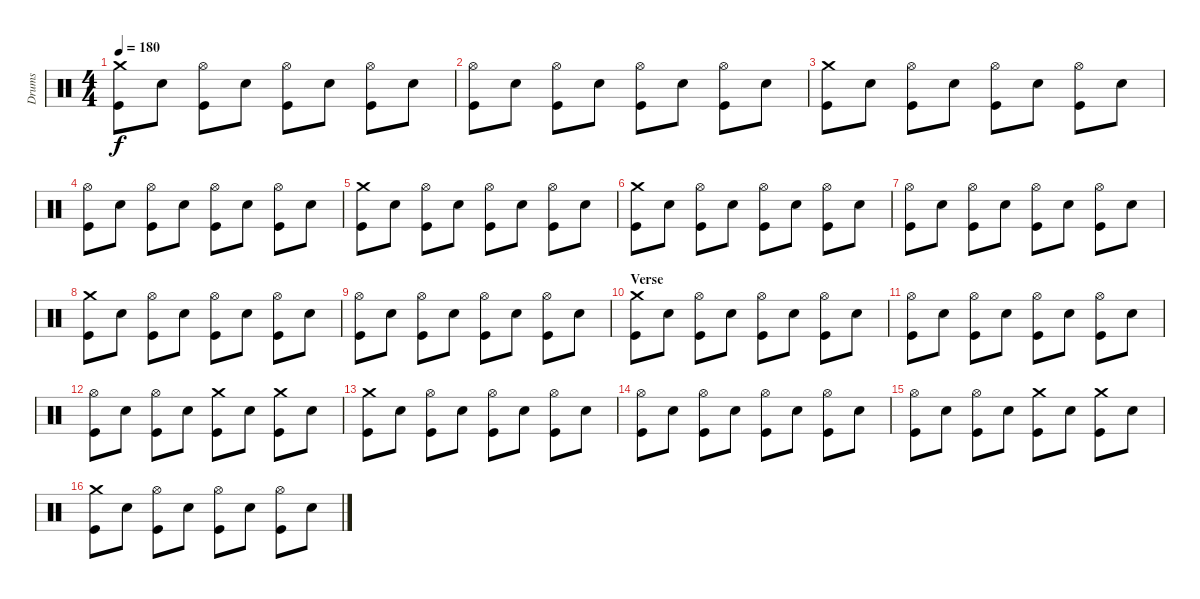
\track ("Drums" "Drums") {instrument percussion}
\staff {score}
\articulation defaults
\ts (4 4)
\tempo 180
\clef neutral
\ks c
("Crash medium (hit)" "Kick (hit)").8{dy f} "Snare (hit) 2".8 ("Hi-Hat (open)" "Kick (hit)").8 "Snare (hit) 2".8 ("Hi-Hat (open)" "Kick (hit)").8 "Snare (hit) 2".8 ("Hi-Hat (open)" "Kick (hit)").8 "Snare (hit) 2".8 |
("Hi-Hat (open)" "Kick (hit)").8 "Snare (hit) 2".8 ("Hi-Hat (open)" "Kick (hit)").8 "Snare (hit) 2".8 ("Hi-Hat (open)" "Kick (hit)").8 "Snare (hit) 2".8 ("Hi-Hat (open)" "Kick (hit)").8 "Snare (hit) 2".8 |
("Crash medium (hit)" "Kick (hit)").8 "Snare (hit) 2".8 ("Hi-Hat (open)" "Kick (hit)").8 "Snare (hit) 2".8 ("Hi-Hat (open)" "Kick (hit)").8 "Snare (hit) 2".8 ("Hi-Hat (open)" "Kick (hit)").8 "Snare (hit) 2".8 |
("Hi-Hat (open)" "Kick (hit)").8 "Snare (hit) 2".8 ("Hi-Hat (open)" "Kick (hit)").8 "Snare (hit) 2".8 ("Hi-Hat (open)" "Kick (hit)").8 "Snare (hit) 2".8 ("Hi-Hat (open)" "Kick (hit)").8 "Snare (hit) 2".8 |
("Crash medium (hit)" "Kick (hit)").8 "Snare (hit) 2".8 ("Hi-Hat (open)" "Kick (hit)").8 "Snare (hit) 2".8 ("Hi-Hat (open)" "Kick (hit)").8 "Snare (hit) 2".8 ("Hi-Hat (open)" "Kick (hit)").8 "Snare (hit) 2".8 |
("Crash medium (hit)" "Kick (hit)").8 "Snare (hit) 2".8 ("Hi-Hat (open)" "Kick (hit)").8 "Snare (hit) 2".8 ("Hi-Hat (open)" "Kick (hit)").8 "Snare (hit) 2".8 ("Hi-Hat (open)" "Kick (hit)").8 "Snare (hit) 2".8 |
("Hi-Hat (open)" "Kick (hit)").8 "Snare (hit) 2".8 ("Hi-Hat (open)" "Kick (hit)").8 "Snare (hit) 2".8 ("Hi-Hat (open)" "Kick (hit)").8 "Snare (hit) 2".8 ("Hi-Hat (open)" "Kick (hit)").8 "Snare (hit) 2".8 |
("Crash medium (hit)" "Kick (hit)").8 "Snare (hit) 2".8 ("Hi-Hat (open)" "Kick (hit)").8 "Snare (hit) 2".8 ("Hi-Hat (open)" "Kick (hit)").8 "Snare (hit) 2".8 ("Hi-Hat (open)" "Kick (hit)").8 "Snare (hit) 2".8 |
("Hi-Hat (open)" "Kick (hit)").8 "Snare (hit) 2".8 ("Hi-Hat (open)" "Kick (hit)").8 "Snare (hit) 2".8 ("Hi-Hat (open)" "Kick (hit)").8 "Snare (hit) 2".8 ("Hi-Hat (open)" "Kick (hit)").8 "Snare (hit) 2".8 |
\section ("" "Verse")
("Crash medium (hit)" "Kick (hit)").8 "Snare (hit) 2".8 ("Hi-Hat (open)" "Kick (hit)").8 "Snare (hit) 2".8 ("Hi-Hat (open)" "Kick (hit)").8 "Snare (hit) 2".8 ("Hi-Hat (open)" "Kick (hit)").8 "Snare (hit) 2".8 |
("Hi-Hat (open)" "Kick (hit)").8 "Snare (hit) 2".8 ("Hi-Hat (open)" "Kick (hit)").8 "Snare (hit) 2".8 ("Hi-Hat (open)" "Kick (hit)").8 "Snare (hit) 2".8 ("Hi-Hat (open)" "Kick (hit)").8 "Snare (hit) 2".8 |
("Hi-Hat (open)" "Kick (hit)").8 "Snare (hit) 2".8 ("Hi-Hat (open)" "Kick (hit)").8 "Snare (hit) 2".8 ("Crash medium (hit)" "Kick (hit)").8 "Snare (hit) 2".8 ("Crash medium (hit)" "Kick (hit)").8 "Snare (hit) 2".8 |
("Crash medium (hit)" "Kick (hit)").8 "Snare (hit) 2".8 ("Hi-Hat (open)" "Kick (hit)").8 "Snare (hit) 2".8 ("Hi-Hat (open)" "Kick (hit)").8 "Snare (hit) 2".8 ("Hi-Hat (open)" "Kick (hit)").8 "Snare (hit) 2".8 |
("Hi-Hat (open)" "Kick (hit)").8 "Snare (hit) 2".8 ("Hi-Hat (open)" "Kick (hit)").8 "Snare (hit) 2".8 ("Hi-Hat (open)" "Kick (hit)").8 "Snare (hit) 2".8 ("Hi-Hat (open)" "Kick (hit)").8 "Snare (hit) 2".8 |
("Hi-Hat (open)" "Kick (hit)").8 "Snare (hit) 2".8 ("Hi-Hat (open)" "Kick (hit)").8 "Snare (hit) 2".8 ("Crash medium (hit)" "Kick (hit)").8 "Snare (hit) 2".8 ("Crash medium (hit)" "Kick (hit)").8 "Snare (hit) 2".8 |
("Crash medium (hit)" "Kick (hit)").8 "Snare (hit) 2".8 ("Hi-Hat (open)" "Kick (hit)").8 "Snare (hit) 2".8 ("Hi-Hat (open)" "Kick (hit)").8 "Snare (hit) 2".8 ("Hi-Hat (open)" "Kick (hit)").8 "Snare (hit) 2".8
